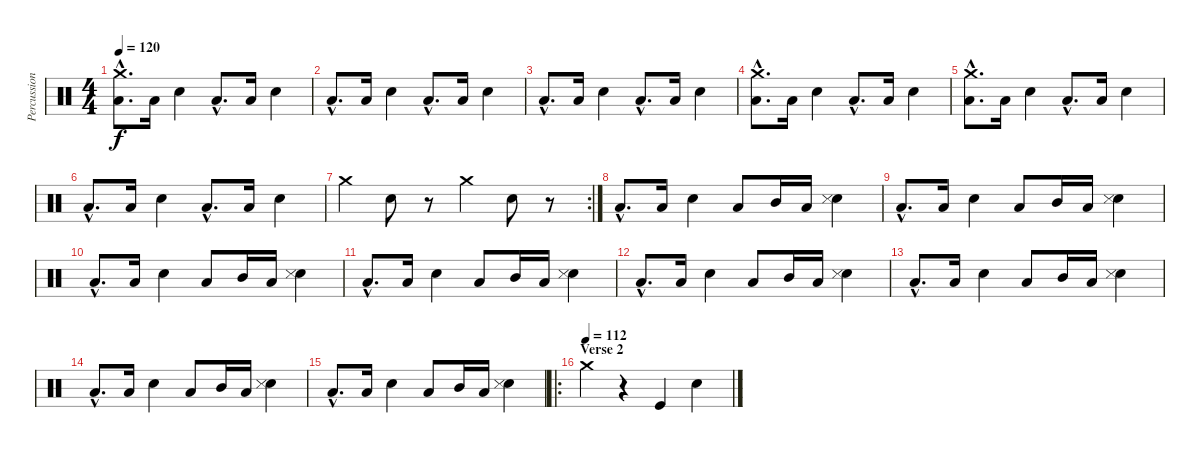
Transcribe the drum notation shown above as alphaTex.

\track ("Percussion 1" "Percussion") {instrument percussion}
\staff {score}
\articulation defaults
\ts (4 4)
\tempo 120
\clef neutral
\ks c
("Crash medium (hit)"{hac} "Low Tom (hit)"{hac}).8{d dy f} "Low Tom (hit)".16 "Electric Snare (hit)".4 "Low Tom (hit)"{hac}.8{d} "Low Tom (hit)".16 "Electric Snare (hit)".4 |
"Low Tom (hit)"{hac}.8{d} "Low Tom (hit)".16 "Electric Snare (hit)".4 "Low Tom (hit)"{hac}.8{d} "Low Tom (hit)".16 "Electric Snare (hit)".4 |
"Low Tom (hit)"{hac}.8{d} "Low Tom (hit)".16 "Electric Snare (hit)".4 "Low Tom (hit)"{hac}.8{d} "Low Tom (hit)".16 "Electric Snare (hit)".4 |
("Crash medium (hit)"{hac} "Low Tom (hit)"{hac}).8{d} "Low Tom (hit)".16 "Electric Snare (hit)".4 "Low Tom (hit)"{hac}.8{d} "Low Tom (hit)".16 "Electric Snare (hit)".4 |
("Crash medium (hit)"{hac} "Low Tom (hit)"{hac}).8{d} "Low Tom (hit)".16 "Electric Snare (hit)".4 "Low Tom (hit)"{hac}.8{d} "Low Tom (hit)".16 "Electric Snare (hit)".4 |
"Low Tom (hit)"{hac}.8{d} "Low Tom (hit)".16 "Electric Snare (hit)".4 "Low Tom (hit)"{hac}.8{d} "Low Tom (hit)".16 "Electric Snare (hit)".4 |
\rc 2 "Crash medium (hit)".4 "Electric Snare (hit)".8
r.8 "Crash medium (hit)".4 "Electric Snare (hit)".8 r.8 |
"Low Tom (hit)"{hac}.8{d} "Low Tom (hit)".16 "Electric Snare (hit)".4 "Low Tom (hit)".8 "Mid Tom (hit)".16 "Low Tom (hit)".16 ("Electric Snare (hit)" "Metronome (hit)").4 |
"Low Tom (hit)"{hac}.8{d} "Low Tom (hit)".16 "Electric Snare (hit)".4 "Low Tom (hit)".8 "Mid Tom (hit)".16 "Low Tom (hit)".16 ("Electric Snare (hit)" "Metronome (hit)").4 |
"Low Tom (hit)"{hac}.8{d} "Low Tom (hit)".16 "Electric Snare (hit)".4 "Low Tom (hit)".8 "Mid Tom (hit)".16 "Low Tom (hit)".16 ("Electric Snare (hit)" "Metronome (hit)").4 |
"Low Tom (hit)"{hac}.8{d} "Low Tom (hit)".16 "Electric Snare (hit)".4 "Low Tom (hit)".8 "Mid Tom (hit)".16 "Low Tom (hit)".16 ("Electric Snare (hit)" "Metronome (hit)").4 |
"Low Tom (hit)"{hac}.8{d} "Low Tom (hit)".16 "Electric Snare (hit)".4 "Low Tom (hit)".8 "Mid Tom (hit)".16 "Low Tom (hit)".16 ("Electric Snare (hit)" "Metronome (hit)").4 |
"Low Tom (hit)"{hac}.8{d} "Low Tom (hit)".16 "Electric Snare (hit)".4 "Low Tom (hit)".8 "Mid Tom (hit)".16 "Low Tom (hit)".16 ("Electric Snare (hit)" "Metronome (hit)").4 |
"Low Tom (hit)"{hac}.8{d} "Low Tom (hit)".16 "Electric Snare (hit)".4 "Low Tom (hit)".8 "Mid Tom (hit)".16 "Low Tom (hit)".16 ("Electric Snare (hit)" "Metronome (hit)").4 |
"Low Tom (hit)"{hac}.8{d} "Low Tom (hit)".16 "Electric Snare (hit)".4 "Low Tom (hit)".8 "Mid Tom (hit)".16 "Low Tom (hit)".16 ("Electric Snare (hit)" "Metronome (hit)").4 |
\ro
\section ("" "Verse 2")
\tempo (112)
"Crash medium (hit)".4 r.4 "Kick (hit)".4 "Electric Snare (hit)".4
